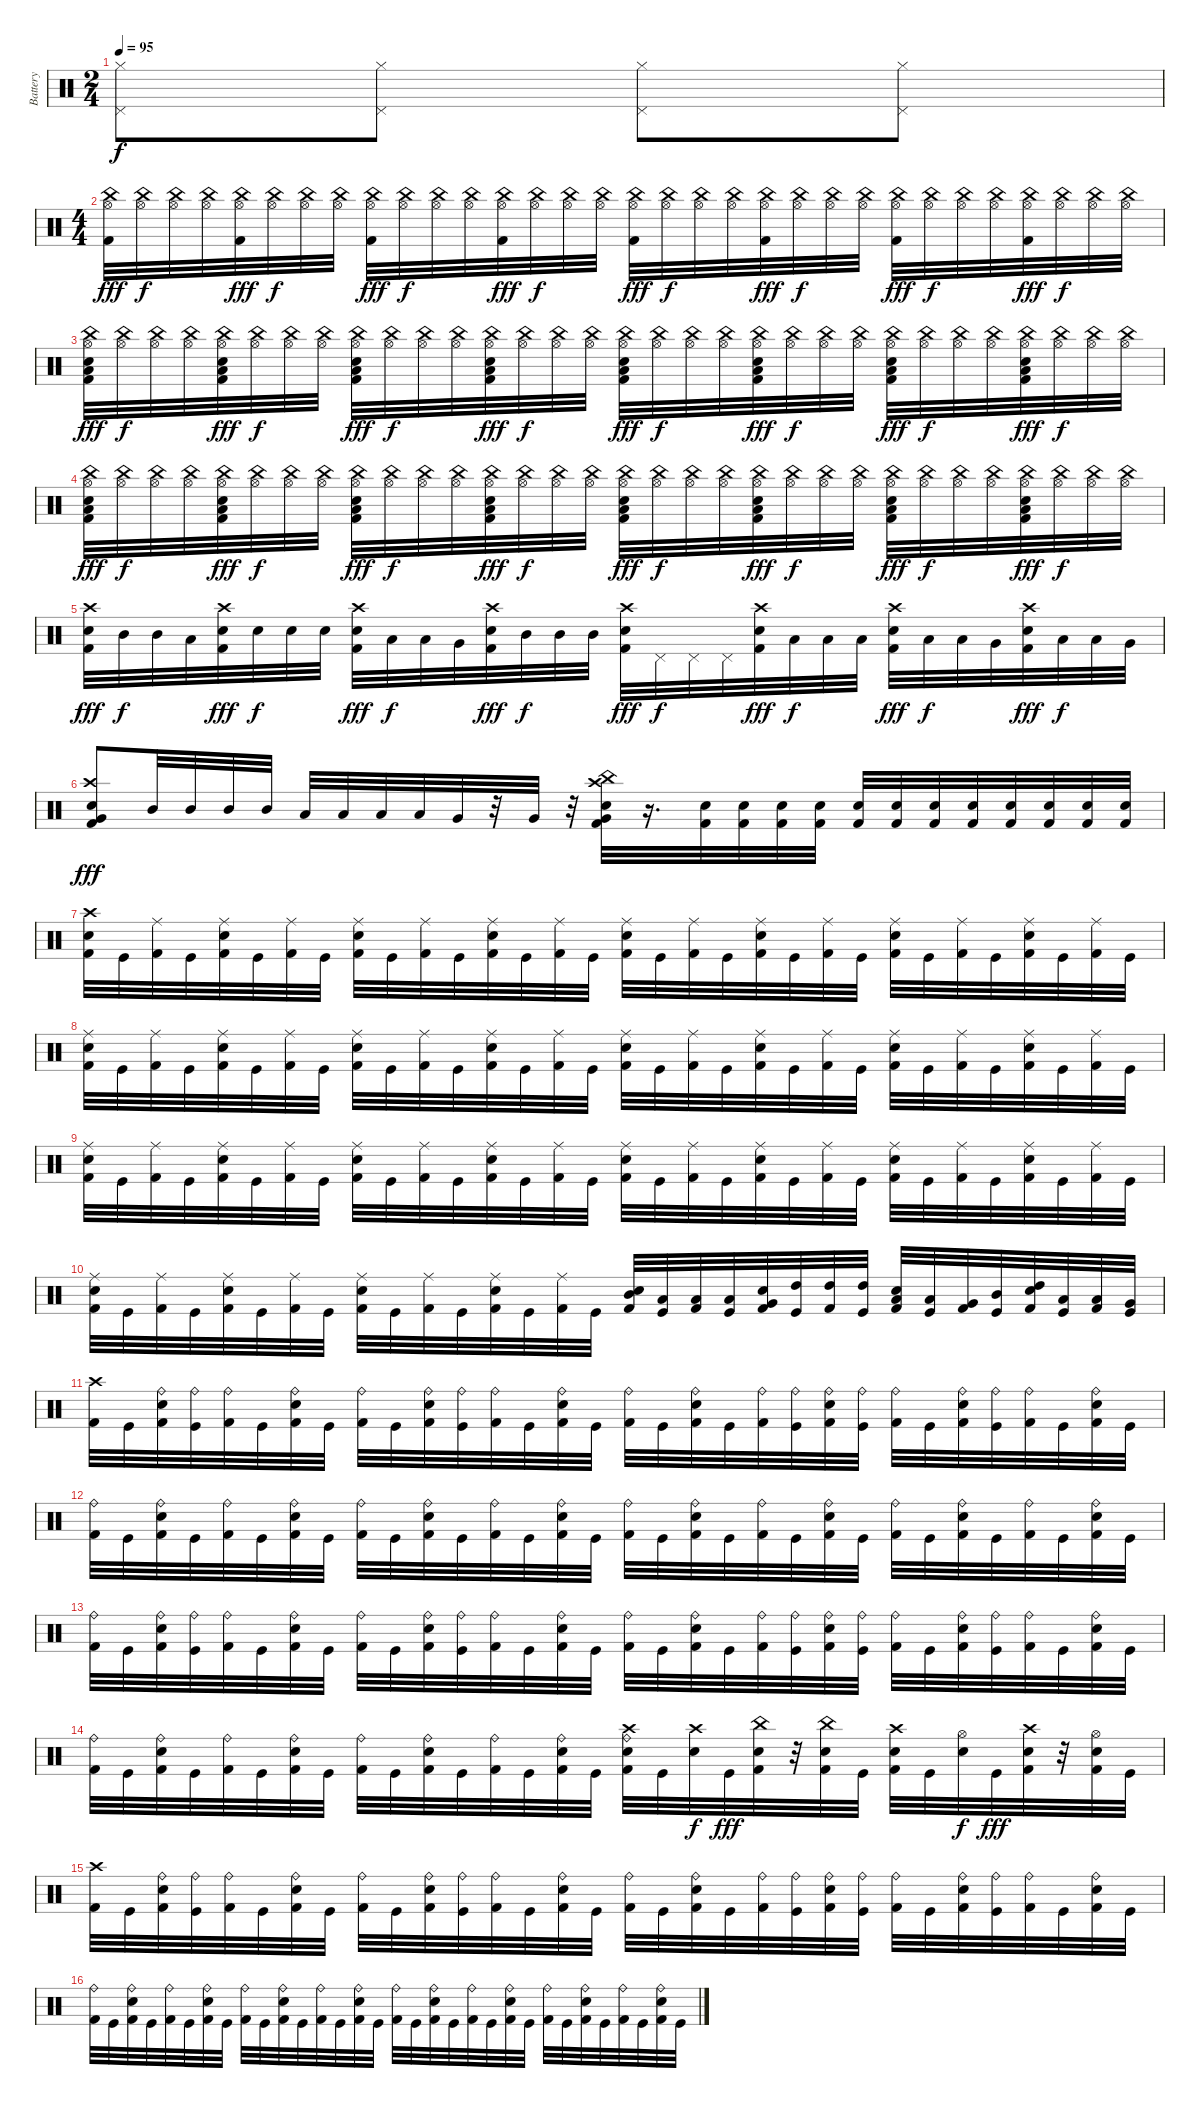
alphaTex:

\track ("Battery" "Battery") {instrument percussion}
\staff {score}
\articulation defaults
\ts (2 4)
\tempo 95
\clef neutral
\ks c
("Pedal Hi-Hat (hit)" "Hi-Hat (closed)").8{dy f} ("Pedal Hi-Hat (hit)" "Hi-Hat (closed)").8 ("Pedal Hi-Hat (hit)" "Hi-Hat (closed)").8 ("Pedal Hi-Hat (hit)" "Hi-Hat (closed)").8 |
\ts (4 4)
("China (hit)" "Hi-Hat (open)" "Kick (hit) 2").32{dy fff} ("China (hit)" "Hi-Hat (open)").32{dy f} ("China (hit)" "Hi-Hat (open)").32 ("China (hit)" "Hi-Hat (open)").32 ("China (hit)" "Hi-Hat (open)" "Kick (hit) 2").32{dy fff} ("China (hit)" "Hi-Hat (open)").32{dy f} ("Hi-Hat (open)" "China (hit)").32 ("Hi-Hat (open)" "China (hit)").32 ("China (hit)" "Hi-Hat (open)" "Kick (hit) 2").32{dy fff} ("China (hit)" "Hi-Hat (open)").32{dy f} ("China (hit)" "Hi-Hat (open)").32 ("China (hit)" "Hi-Hat (open)").32 ("China (hit)" "Hi-Hat (open)" "Kick (hit) 2").32{dy fff} ("China (hit)" "Hi-Hat (open)").32{dy f} ("China (hit)" "Hi-Hat (open)").32 ("China (hit)" "Hi-Hat (open)").32 ("China (hit)" "Hi-Hat (open)" "Kick (hit) 2").32{dy fff} ("China (hit)" "Hi-Hat (open)").32{dy f} ("China (hit)" "Hi-Hat (open)").32 ("China (hit)" "Hi-Hat (open)").32 ("China (hit)" "Hi-Hat (open)" "Kick (hit) 2").32{dy fff} ("China (hit)" "Hi-Hat (open)").32{dy f} ("China (hit)" "Hi-Hat (open)").32 ("China (hit)" "Hi-Hat (open)").32 ("China (hit)" "Hi-Hat (open)" "Kick (hit) 2").32{dy fff} ("China (hit)" "Hi-Hat (open)").32{dy f} ("China (hit)" "Hi-Hat (open)").32 ("China (hit)" "Hi-Hat (open)").32 ("China (hit)" "Hi-Hat (open)" "Kick (hit) 2").32{dy fff} ("China (hit)" "Hi-Hat (open)").32{dy f} ("China (hit)" "Hi-Hat (open)").32 ("China (hit)" "Hi-Hat (open)").32 |
("Electric Snare (hit)" "Low Tom (hit)" "China (hit)" "Hi-Hat (open)" "Kick (hit) 2").32{dy fff} ("China (hit)" "Hi-Hat (open)").32{dy f} ("China (hit)" "Hi-Hat (open)").32 ("China (hit)" "Hi-Hat (open)").32 ("Electric Snare (hit)" "Low Tom (hit)" "China (hit)" "Hi-Hat (open)" "Kick (hit) 2").32{dy fff} ("China (hit)" "Hi-Hat (open)").32{dy f} ("Hi-Hat (open)" "China (hit)").32 ("Hi-Hat (open)" "China (hit)").32 ("Electric Snare (hit)" "Low Tom (hit)" "China (hit)" "Hi-Hat (open)" "Kick (hit) 2").32{dy fff} ("China (hit)" "Hi-Hat (open)").32{dy f} ("China (hit)" "Hi-Hat (open)").32 ("China (hit)" "Hi-Hat (open)").32 ("Electric Snare (hit)" "Low Tom (hit)" "China (hit)" "Hi-Hat (open)" "Kick (hit) 2").32{dy fff} ("China (hit)" "Hi-Hat (open)").32{dy f} ("Hi-Hat (open)" "China (hit)").32 ("Hi-Hat (open)" "China (hit)").32 ("Electric Snare (hit)" "Low Tom (hit)" "China (hit)" "Hi-Hat (open)" "Kick (hit) 2").32{dy fff} ("China (hit)" "Hi-Hat (open)").32{dy f} ("China (hit)" "Hi-Hat (open)").32 ("China (hit)" "Hi-Hat (open)").32 ("Electric Snare (hit)" "Low Tom (hit)" "China (hit)" "Hi-Hat (open)" "Kick (hit) 2").32{dy fff} ("China (hit)" "Hi-Hat (open)").32{dy f} ("Hi-Hat (open)" "China (hit)").32 ("Hi-Hat (open)" "China (hit)").32 ("Electric Snare (hit)" "Low Tom (hit)" "China (hit)" "Hi-Hat (open)" "Kick (hit) 2").32{dy fff} ("China (hit)" "Hi-Hat (open)").32{dy f} ("Hi-Hat (open)" "China (hit)").32 ("Hi-Hat (open)" "China (hit)").32 ("Electric Snare (hit)" "Low Tom (hit)" "China (hit)" "Hi-Hat (open)" "Kick (hit) 2").32{dy fff} ("China (hit)" "Hi-Hat (open)").32{dy f} ("Hi-Hat (open)" "China (hit)").32 ("Hi-Hat (open)" "China (hit)").32 |
("Electric Snare (hit)" "Low Tom (hit)" "China (hit)" "Hi-Hat (open)" "Kick (hit) 2").32{dy fff} ("China (hit)" "Hi-Hat (open)").32{dy f} ("Hi-Hat (open)" "China (hit)").32 ("Hi-Hat (open)" "China (hit)").32 ("Electric Snare (hit)" "Low Tom (hit)" "China (hit)" "Hi-Hat (open)" "Kick (hit) 2").32{dy fff} ("China (hit)" "Hi-Hat (open)").32{dy f} ("Hi-Hat (open)" "China (hit)").32 ("Hi-Hat (open)" "China (hit)").32 ("Electric Snare (hit)" "Low Tom (hit)" "China (hit)" "Hi-Hat (open)" "Kick (hit) 2").32{dy fff} ("China (hit)" "Hi-Hat (open)").32{dy f} ("Hi-Hat (open)" "China (hit)").32 ("Hi-Hat (open)" "China (hit)").32 ("Electric Snare (hit)" "Low Tom (hit)" "China (hit)" "Hi-Hat (open)" "Kick (hit) 2").32{dy fff} ("China (hit)" "Hi-Hat (open)").32{dy f} ("Hi-Hat (open)" "China (hit)").32 ("Hi-Hat (open)" "China (hit)").32 ("Electric Snare (hit)" "Low Tom (hit)" "China (hit)" "Hi-Hat (open)" "Kick (hit) 2").32{dy fff} ("China (hit)" "Hi-Hat (open)").32{dy f} ("Hi-Hat (open)" "China (hit)").32 ("Hi-Hat (open)" "China (hit)").32 ("Electric Snare (hit)" "Low Tom (hit)" "China (hit)" "Hi-Hat (open)" "Kick (hit) 2").32{dy fff} ("China (hit)" "Hi-Hat (open)").32{dy f} ("China (hit)" "Hi-Hat (open)").32 ("China (hit)" "Hi-Hat (open)").32 ("Electric Snare (hit)" "Low Tom (hit)" "China (hit)" "Hi-Hat (open)" "Kick (hit) 2").32{dy fff} ("China (hit)" "Hi-Hat (open)").32{dy f} ("China (hit)" "Hi-Hat (open)").32 ("China (hit)" "Hi-Hat (open)").32 ("Electric Snare (hit)" "Low Tom (hit)" "China (hit)" "Hi-Hat (open)" "Kick (hit) 2").32{dy fff} ("China (hit)" "Hi-Hat (open)").32{dy f} ("Hi-Hat (open)" "China (hit)").32 ("Hi-Hat (open)" "China (hit)").32 |
("Electric Snare (hit)" "Crash high (hit)" "Kick (hit) 2").32{dy fff} "Mid Tom (hit)".32{dy f} "Mid Tom (hit)".32 "Low Tom (hit)".32 ("Electric Snare (hit)" "Crash high (hit)" "Kick (hit) 2").32{dy fff} "Electric Snare (hit)".32{dy f} "Electric Snare (hit)".32 "Electric Snare (hit)".32 ("Electric Snare (hit)" "Crash high (hit)" "Kick (hit) 2").32{dy fff} "Low Tom (hit)".32{dy f} "Low Tom (hit)".32 "Very Low Tom (hit)".32 ("Electric Snare (hit)" "Crash high (hit)" "Kick (hit) 2").32{dy fff} "Mid Tom (hit)".32{dy f} "Mid Tom (hit)".32 "Mid Tom (hit)".32 ("Electric Snare (hit)" "Crash high (hit)" "Kick (hit) 2").32{dy fff} "Pedal Hi-Hat (hit)".32{dy f} "Pedal Hi-Hat (hit)".32 "Pedal Hi-Hat (hit)".32 ("Crash high (hit)" "Electric Snare (hit)" "Kick (hit) 2").32{dy fff} "Low Floor Tom (hit)".32{dy f} "Low Floor Tom (hit)".32 "Low Floor Tom (hit)".32 ("Electric Snare (hit)" "Crash high (hit)" "Kick (hit) 2").32{dy fff} "Low Tom (hit)".32{dy f} "Low Tom (hit)".32 "Very Low Tom (hit)".32 ("Electric Snare (hit)" "Crash high (hit)" "Kick (hit) 2").32{dy fff} "Low Floor Tom (hit)".32{dy f} "Low Floor Tom (hit)".32 "Very Low Tom (hit)".32 |
("Very Low Tom (hit)" "Electric Snare (hit)" "Crash high (hit)" "Kick (hit) 2").8{dy fff} "Mid Tom (hit)".32 "Mid Tom (hit)".32 "Mid Tom (hit)".32 "Mid Tom (hit)".32 "Low Tom (hit)".32 "Low Tom (hit)".32 "Low Tom (hit)".32 "Low Tom (hit)".32 "Very Low Tom (hit)".32 r.32 "Very Low Tom (hit)".32 r.32 ("Electric Snare (hit)" "Crash high (hit)" "Very Low Tom (hit)" "China (hit)" "Kick (hit) 2").32 r.16{d} ("Electric Snare (hit)" "Kick (hit) 2").32 ("Electric Snare (hit)" "Kick (hit) 2").32 ("Electric Snare (hit)" "Kick (hit) 2").32 ("Electric Snare (hit)" "Kick (hit) 2").32 ("Electric Snare (hit)" "Kick (hit) 2").32 ("Electric Snare (hit)" "Kick (hit) 2").32 ("Electric Snare (hit)" "Kick (hit) 2").32 ("Electric Snare (hit)" "Kick (hit) 2").32 ("Electric Snare (hit)" "Kick (hit) 2").32 ("Electric Snare (hit)" "Kick (hit) 2").32 ("Electric Snare (hit)" "Kick (hit) 2").32 ("Electric Snare (hit)" "Kick (hit) 2").32 |
("Electric Snare (hit)" "Crash high (hit)" "Kick (hit) 2").32 "Kick (hit)".32 ("Ride (middle)" "Kick (hit) 2").32 "Kick (hit)".32 ("Electric Snare (hit)" "Ride (middle)" "Kick (hit) 2").32 "Kick (hit)".32 ("Ride (middle)" "Kick (hit) 2").32 "Kick (hit)".32 ("Electric Snare (hit)" "Ride (middle)" "Kick (hit) 2").32 "Kick (hit)".32 ("Ride (middle)" "Kick (hit) 2").32 "Kick (hit)".32 ("Electric Snare (hit)" "Ride (middle)" "Kick (hit) 2").32 "Kick (hit)".32 ("Ride (middle)" "Kick (hit) 2").32 "Kick (hit)".32 ("Electric Snare (hit)" "Ride (middle)" "Kick (hit) 2").32 "Kick (hit)".32 ("Ride (middle)" "Kick (hit) 2").32 "Kick (hit)".32 ("Ride (middle)" "Electric Snare (hit)" "Kick (hit) 2").32 "Kick (hit)".32 ("Ride (middle)" "Kick (hit) 2").32 "Kick (hit)".32 ("Electric Snare (hit)" "Ride (middle)" "Kick (hit) 2").32 "Kick (hit)".32 ("Ride (middle)" "Kick (hit) 2").32 "Kick (hit)".32 ("Ride (middle)" "Electric Snare (hit)" "Kick (hit) 2").32 "Kick (hit)".32 ("Ride (middle)" "Kick (hit) 2").32 "Kick (hit)".32 |
("Electric Snare (hit)" "Ride (middle)" "Kick (hit) 2").32 "Kick (hit)".32 ("Ride (middle)" "Kick (hit) 2").32 "Kick (hit)".32 ("Ride (middle)" "Electric Snare (hit)" "Kick (hit) 2").32 "Kick (hit)".32 ("Ride (middle)" "Kick (hit) 2").32 "Kick (hit)".32 ("Ride (middle)" "Electric Snare (hit)" "Kick (hit) 2").32 "Kick (hit)".32 ("Ride (middle)" "Kick (hit) 2").32 "Kick (hit)".32 ("Electric Snare (hit)" "Ride (middle)" "Kick (hit) 2").32 "Kick (hit)".32 ("Ride (middle)" "Kick (hit) 2").32 "Kick (hit)".32 ("Electric Snare (hit)" "Ride (middle)" "Kick (hit) 2").32 "Kick (hit)".32 ("Ride (middle)" "Kick (hit) 2").32 "Kick (hit)".32 ("Electric Snare (hit)" "Ride (middle)" "Kick (hit) 2").32 "Kick (hit)".32 ("Ride (middle)" "Kick (hit) 2").32 "Kick (hit)".32 ("Electric Snare (hit)" "Ride (middle)" "Kick (hit) 2").32 "Kick (hit)".32 ("Ride (middle)" "Kick (hit) 2").32 "Kick (hit)".32 ("Electric Snare (hit)" "Ride (middle)" "Kick (hit) 2").32 "Kick (hit)".32 ("Ride (middle)" "Kick (hit) 2").32 "Kick (hit)".32 |
("Ride (middle)" "Electric Snare (hit)" "Kick (hit) 2").32 "Kick (hit)".32 ("Ride (middle)" "Kick (hit) 2").32 "Kick (hit)".32 ("Ride (middle)" "Electric Snare (hit)" "Kick (hit) 2").32 "Kick (hit)".32 ("Ride (middle)" "Kick (hit) 2").32 "Kick (hit)".32 ("Ride (middle)" "Electric Snare (hit)" "Kick (hit) 2").32 "Kick (hit)".32 ("Ride (middle)" "Kick (hit) 2").32 "Kick (hit)".32 ("Electric Snare (hit)" "Ride (middle)" "Kick (hit) 2").32 "Kick (hit)".32 ("Ride (middle)" "Kick (hit) 2").32 "Kick (hit)".32 ("Electric Snare (hit)" "Ride (middle)" "Kick (hit) 2").32 "Kick (hit)".32 ("Ride (middle)" "Kick (hit) 2").32 "Kick (hit)".32 ("Ride (middle)" "Electric Snare (hit)" "Kick (hit) 2").32 "Kick (hit)".32 ("Ride (middle)" "Kick (hit) 2").32 "Kick (hit)".32 ("Electric Snare (hit)" "Ride (middle)" "Kick (hit) 2").32 "Kick (hit)".32 ("Ride (middle)" "Kick (hit) 2").32 "Kick (hit)".32 ("Ride (middle)" "Electric Snare (hit)" "Kick (hit) 2").32 "Kick (hit)".32 ("Ride (middle)" "Kick (hit) 2").32 "Kick (hit)".32 |
("Ride (middle)" "Electric Snare (hit)" "Kick (hit) 2").32 "Kick (hit)".32 ("Ride (middle)" "Kick (hit) 2").32 "Kick (hit)".32 ("Ride (middle)" "Electric Snare (hit)" "Kick (hit) 2").32 "Kick (hit)".32 ("Ride (middle)" "Kick (hit) 2").32 "Kick (hit)".32 ("Electric Snare (hit)" "Ride (middle)" "Kick (hit) 2").32 "Kick (hit)".32 ("Ride (middle)" "Kick (hit) 2").32 "Kick (hit)".32 ("Electric Snare (hit)" "Ride (middle)" "Kick (hit) 2").32 "Kick (hit)".32 ("Ride (middle)" "Kick (hit) 2").32 "Kick (hit)".32 ("Mid Tom (hit)" "Electric Snare (hit)" "Kick (hit) 2").32 ("Low Tom (hit)" "Kick (hit)").32 ("Low Tom (hit)" "Kick (hit) 2").32 ("Low Tom (hit)" "Kick (hit)").32 ("Very Low Tom (hit)" "Electric Snare (hit)" "Kick (hit) 2").32 ("High Tom (hit)" "Kick (hit)").32 ("High Tom (hit)" "Kick (hit) 2").32 ("High Tom (hit)" "Kick (hit)").32 ("Electric Snare (hit)" "Low Tom (hit)" "Kick (hit) 2").32 ("Low Tom (hit)" "Kick (hit)").32 ("Very Low Tom (hit)" "Kick (hit) 2").32 ("Mid Tom (hit)" "Kick (hit)").32 ("High Tom (hit)" "Electric Snare (hit)" "Kick (hit) 2").32 ("Low Tom (hit)" "Kick (hit)").32 ("Low Floor Tom (hit)" "Kick (hit) 2").32 ("Very Low Tom (hit)" "Kick (hit)").32 |
("Crash high (hit)" "Kick (hit) 2").32 "Kick (hit)".32 ("Ride (bell)" "Electric Snare (hit)" "Kick (hit) 2").32 ("Ride (bell)" "Kick (hit)").32 ("Ride (bell)" "Kick (hit) 2").32 "Kick (hit)".32 ("Ride (bell)" "Electric Snare (hit)" "Kick (hit) 2").32 "Kick (hit)".32 ("Ride (bell)" "Kick (hit) 2").32 "Kick (hit)".32 ("Electric Snare (hit)" "Ride (bell)" "Kick (hit) 2").32 ("Ride (bell)" "Kick (hit)").32 ("Ride (bell)" "Kick (hit) 2").32 "Kick (hit)".32 ("Ride (bell)" "Electric Snare (hit)" "Kick (hit) 2").32 "Kick (hit)".32 ("Ride (bell)" "Kick (hit) 2").32 "Kick (hit)".32 ("Electric Snare (hit)" "Ride (bell)" "Kick (hit) 2").32 "Kick (hit)".32 ("Ride (bell)" "Kick (hit) 2").32 ("Ride (bell)" "Kick (hit)").32 ("Electric Snare (hit)" "Ride (bell)" "Kick (hit) 2").32 ("Ride (bell)" "Kick (hit)").32 ("Ride (bell)" "Kick (hit) 2").32 "Kick (hit)".32 ("Electric Snare (hit)" "Ride (bell)" "Kick (hit) 2").32 ("Ride (bell)" "Kick (hit)").32 ("Ride (bell)" "Kick (hit) 2").32 "Kick (hit)".32 ("Electric Snare (hit)" "Ride (bell)" "Kick (hit) 2").32 "Kick (hit)".32 |
("Ride (bell)" "Kick (hit) 2").32 "Kick (hit)".32 ("Ride (bell)" "Electric Snare (hit)" "Kick (hit) 2").32 "Kick (hit)".32 ("Ride (bell)" "Kick (hit) 2").32 "Kick (hit)".32 ("Ride (bell)" "Electric Snare (hit)" "Kick (hit) 2").32 "Kick (hit)".32 ("Ride (bell)" "Kick (hit) 2").32 "Kick (hit)".32 ("Electric Snare (hit)" "Ride (bell)" "Kick (hit) 2").32 "Kick (hit)".32 ("Ride (bell)" "Kick (hit) 2").32 "Kick (hit)".32 ("Ride (bell)" "Electric Snare (hit)" "Kick (hit) 2").32 "Kick (hit)".32 ("Ride (bell)" "Kick (hit) 2").32 "Kick (hit)".32 ("Electric Snare (hit)" "Ride (bell)" "Kick (hit) 2").32 "Kick (hit)".32 ("Ride (bell)" "Kick (hit) 2").32 "Kick (hit)".32 ("Ride (bell)" "Electric Snare (hit)" "Kick (hit) 2").32 "Kick (hit)".32 ("Ride (bell)" "Kick (hit) 2").32 "Kick (hit)".32 ("Ride (bell)" "Electric Snare (hit)" "Kick (hit) 2").32 "Kick (hit)".32 ("Ride (bell)" "Kick (hit) 2").32 "Kick (hit)".32 ("Ride (bell)" "Electric Snare (hit)" "Kick (hit) 2").32 "Kick (hit)".32 |
("Ride (bell)" "Kick (hit) 2").32 "Kick (hit)".32 ("Ride (bell)" "Electric Snare (hit)" "Kick (hit) 2").32 ("Ride (bell)" "Kick (hit)").32 ("Ride (bell)" "Kick (hit) 2").32 "Kick (hit)".32 ("Ride (bell)" "Electric Snare (hit)" "Kick (hit) 2").32 "Kick (hit)".32 ("Ride (bell)" "Kick (hit) 2").32 "Kick (hit)".32 ("Electric Snare (hit)" "Ride (bell)" "Kick (hit) 2").32 ("Ride (bell)" "Kick (hit)").32 ("Ride (bell)" "Kick (hit) 2").32 "Kick (hit)".32 ("Electric Snare (hit)" "Ride (bell)" "Kick (hit) 2").32 "Kick (hit)".32 ("Ride (bell)" "Kick (hit) 2").32 "Kick (hit)".32 ("Electric Snare (hit)" "Ride (bell)" "Kick (hit) 2").32 "Kick (hit)".32 ("Ride (bell)" "Kick (hit) 2").32 ("Ride (bell)" "Kick (hit)").32 ("Electric Snare (hit)" "Ride (bell)" "Kick (hit) 2").32 ("Ride (bell)" "Kick (hit)").32 ("Ride (bell)" "Kick (hit) 2").32 "Kick (hit)".32 ("Electric Snare (hit)" "Ride (bell)" "Kick (hit) 2").32 ("Ride (bell)" "Kick (hit)").32 ("Ride (bell)" "Kick (hit) 2").32 "Kick (hit)".32 ("Ride (bell)" "Electric Snare (hit)" "Kick (hit) 2").32 "Kick (hit)".32 |
("Ride (bell)" "Kick (hit) 2").32 "Kick (hit)".32 ("Electric Snare (hit)" "Ride (bell)" "Kick (hit) 2").32 "Kick (hit)".32 ("Ride (bell)" "Kick (hit) 2").32 "Kick (hit)".32 ("Ride (bell)" "Electric Snare (hit)" "Kick (hit) 2").32 "Kick (hit)".32 ("Ride (bell)" "Kick (hit) 2").32 "Kick (hit)".32 ("Ride (bell)" "Electric Snare (hit)" "Kick (hit) 2").32 "Kick (hit)".32 ("Ride (bell)" "Kick (hit) 2").32 "Kick (hit)".32 ("Electric Snare (hit)" "Ride (bell)" "Kick (hit) 2").32 "Kick (hit)".32 ("Ride (bell)" "Kick (hit) 2" "Crash high (hit)" "Electric Snare (hit)").32 "Kick (hit)".32 ("Crash high (hit)" "Electric Snare (hit)").32{dy f} "Kick (hit)".32{dy fff} ("Electric Snare (hit)" "China (hit)" "Kick (hit) 2").32 r.32 ("China (hit)" "Electric Snare (hit)" "Kick (hit) 2").32 "Kick (hit)".32 ("Electric Snare (hit)" "Kick (hit) 2" "Crash high (hit)").32 "Kick (hit)".32 ("Hi-Hat (open)" "Electric Snare (hit)").32{dy f} "Kick (hit)".32{dy fff} ("Crash high (hit)" "Electric Snare (hit)" "Kick (hit) 2").32 r.32 ("Hi-Hat (open)" "Electric Snare (hit)" "Kick (hit) 2").32 "Kick (hit)".32 |
("Crash high (hit)" "Kick (hit) 2").32 "Kick (hit)".32 ("Electric Snare (hit)" "Ride (bell)" "Kick (hit) 2").32 ("Kick (hit)" "Ride (bell)").32 ("Kick (hit) 2" "Ride (bell)").32 "Kick (hit)".32 ("Kick (hit) 2" "Ride (bell)" "Electric Snare (hit)").32 "Kick (hit)".32 ("Kick (hit) 2" "Ride (bell)").32 "Kick (hit)".32 ("Kick (hit) 2" "Electric Snare (hit)" "Ride (bell)").32 ("Kick (hit)" "Ride (bell)").32 ("Ride (bell)" "Kick (hit) 2").32 "Kick (hit)".32 ("Electric Snare (hit)" "Kick (hit) 2" "Ride (bell)").32 "Kick (hit)".32 ("Ride (bell)" "Kick (hit) 2").32 "Kick (hit)".32 ("Electric Snare (hit)" "Ride (bell)" "Kick (hit) 2").32 "Kick (hit)".32 ("Ride (bell)" "Kick (hit) 2").32 ("Ride (bell)" "Kick (hit)").32 ("Ride (bell)" "Kick (hit) 2" "Electric Snare (hit)").32 ("Ride (bell)" "Kick (hit)").32 ("Ride (bell)" "Kick (hit) 2").32 "Kick (hit)".32 ("Kick (hit) 2" "Ride (bell)" "Electric Snare (hit)").32 ("Kick (hit)" "Ride (bell)").32 ("Ride (bell)" "Kick (hit) 2").32 "Kick (hit)".32 ("Kick (hit) 2" "Electric Snare (hit)" "Ride (bell)").32 "Kick (hit)".32 |
("Kick (hit) 2" "Ride (bell)").32 "Kick (hit)".32 ("Kick (hit) 2" "Ride (bell)" "Electric Snare (hit)").32 "Kick (hit)".32 ("Ride (bell)" "Kick (hit) 2").32 "Kick (hit)".32 ("Kick (hit) 2" "Electric Snare (hit)" "Ride (bell)").32 "Kick (hit)".32 ("Ride (bell)" "Kick (hit) 2").32 "Kick (hit)".32 ("Kick (hit) 2" "Ride (bell)" "Electric Snare (hit)").32 "Kick (hit)".32 ("Ride (bell)" "Kick (hit) 2").32 "Kick (hit)".32 ("Kick (hit) 2" "Ride (bell)" "Electric Snare (hit)").32 "Kick (hit)".32 ("Ride (bell)" "Kick (hit) 2").32 "Kick (hit)".32 ("Kick (hit) 2" "Ride (bell)" "Electric Snare (hit)").32 "Kick (hit)".32 ("Ride (bell)" "Kick (hit) 2").32 "Kick (hit)".32 ("Kick (hit) 2" "Electric Snare (hit)" "Ride (bell)").32 "Kick (hit)".32 ("Ride (bell)" "Kick (hit) 2").32 "Kick (hit)".32 ("Kick (hit) 2" "Ride (bell)" "Electric Snare (hit)").32 "Kick (hit)".32 ("Ride (bell)" "Kick (hit) 2").32 "Kick (hit)".32 ("Ride (bell)" "Electric Snare (hit)" "Kick (hit) 2").32 "Kick (hit)".32
